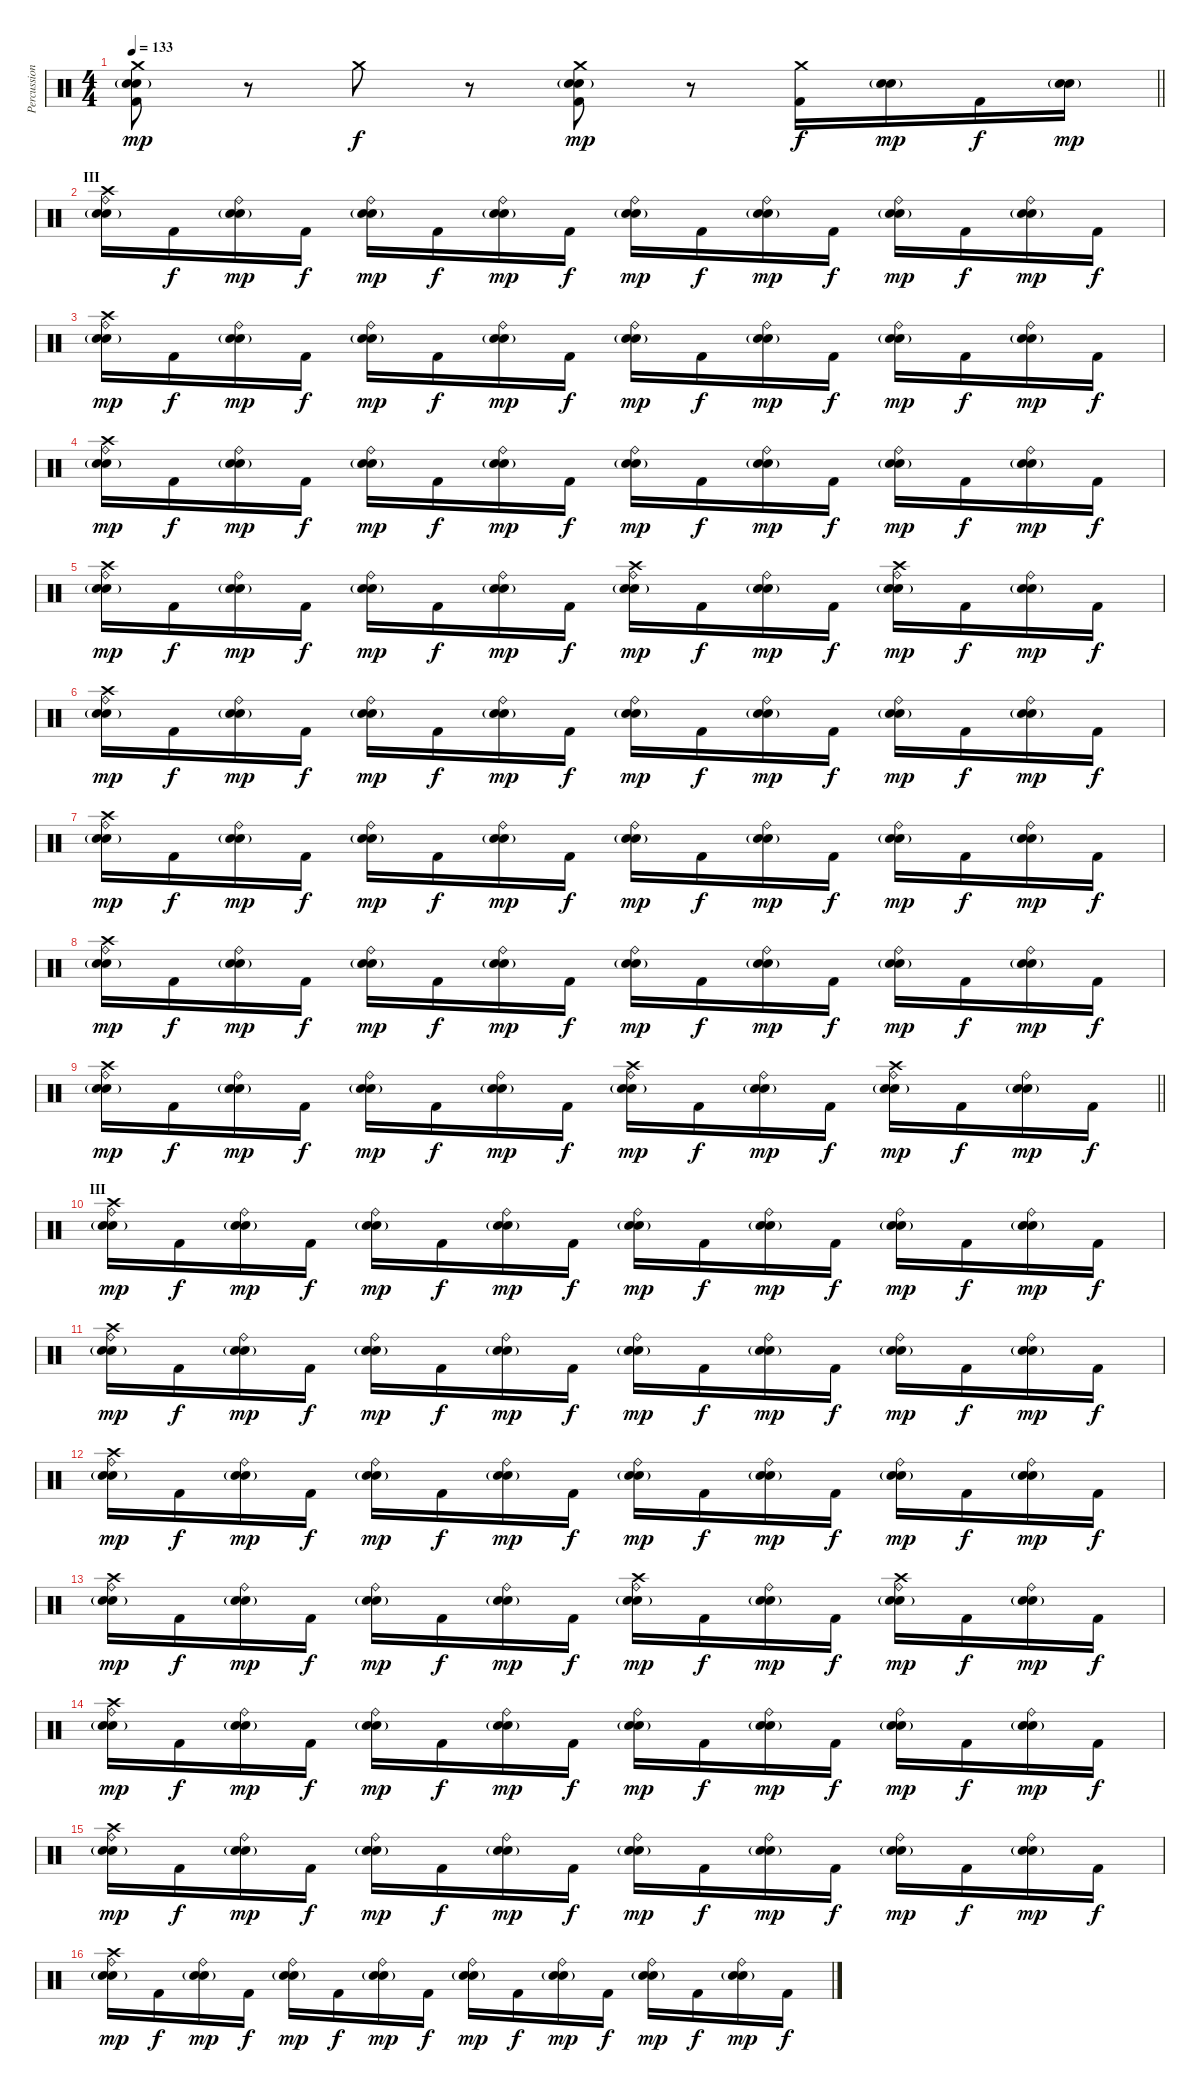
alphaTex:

\track ("Percussion" "Percussion") {instrument percussion}
\staff {score}
\articulation defaults
\ts (4 4)
\tempo 133
\clef neutral
\barLineRight lightlight
\ks c
("Crash medium (hit)" "Electric Snare (hit)" "Snare (hit) 2"{g} "Kick (hit) 2").8{dy mp} r.8 "Crash medium (hit)".8{dy f} r.8 ("Crash medium (hit)" "Electric Snare (hit)" "Snare (hit) 2"{g} "Kick (hit) 2").8{dy mp} r.8 ("Crash medium (hit)" "Kick (hit) 2").16{dy f} ("Electric Snare (hit)" "Snare (hit) 2"{g}).16{dy mp} "Kick (hit) 2".16{dy f} ("Electric Snare (hit)" "Snare (hit) 2"{g}).16{dy mp} |
\section ("" "III")
("Crash high (hit)" "Electric Snare (hit)" "Snare (hit) 2"{g} "Ride (bell)").16 "Kick (hit) 2".16{dy f} ("Electric Snare (hit)" "Snare (hit) 2"{g} "Ride (bell)").16{dy mp} "Kick (hit) 2".16{dy f} ("Electric Snare (hit)" "Snare (hit) 2"{g} "Ride (bell)").16{dy mp} "Kick (hit) 2".16{dy f} ("Electric Snare (hit)" "Snare (hit) 2"{g} "Ride (bell)").16{dy mp} "Kick (hit) 2".16{dy f} ("Electric Snare (hit)" "Snare (hit) 2"{g} "Ride (bell)").16{dy mp} "Kick (hit) 2".16{dy f} ("Electric Snare (hit)" "Snare (hit) 2"{g} "Ride (bell)").16{dy mp} "Kick (hit) 2".16{dy f} ("Electric Snare (hit)" "Snare (hit) 2"{g} "Ride (bell)").16{dy mp} "Kick (hit) 2".16{dy f} ("Electric Snare (hit)" "Snare (hit) 2"{g} "Ride (bell)").16{dy mp} "Kick (hit) 2".16{dy f} |
("Crash high (hit)" "Electric Snare (hit)" "Snare (hit) 2"{g} "Ride (bell)").16{dy mp} "Kick (hit) 2".16{dy f} ("Electric Snare (hit)" "Snare (hit) 2"{g} "Ride (bell)").16{dy mp} "Kick (hit) 2".16{dy f} ("Electric Snare (hit)" "Snare (hit) 2"{g} "Ride (bell)").16{dy mp} "Kick (hit) 2".16{dy f} ("Electric Snare (hit)" "Snare (hit) 2"{g} "Ride (bell)").16{dy mp} "Kick (hit) 2".16{dy f} ("Electric Snare (hit)" "Snare (hit) 2"{g} "Ride (bell)").16{dy mp} "Kick (hit) 2".16{dy f} ("Electric Snare (hit)" "Snare (hit) 2"{g} "Ride (bell)").16{dy mp} "Kick (hit) 2".16{dy f} ("Electric Snare (hit)" "Snare (hit) 2"{g} "Ride (bell)").16{dy mp} "Kick (hit) 2".16{dy f} ("Electric Snare (hit)" "Snare (hit) 2"{g} "Ride (bell)").16{dy mp} "Kick (hit) 2".16{dy f} |
("Crash high (hit)" "Electric Snare (hit)" "Snare (hit) 2"{g} "Ride (bell)").16{dy mp} "Kick (hit) 2".16{dy f} ("Electric Snare (hit)" "Snare (hit) 2"{g} "Ride (bell)").16{dy mp} "Kick (hit) 2".16{dy f} ("Electric Snare (hit)" "Snare (hit) 2"{g} "Ride (bell)").16{dy mp} "Kick (hit) 2".16{dy f} ("Electric Snare (hit)" "Snare (hit) 2"{g} "Ride (bell)").16{dy mp} "Kick (hit) 2".16{dy f} ("Electric Snare (hit)" "Snare (hit) 2"{g} "Ride (bell)").16{dy mp} "Kick (hit) 2".16{dy f} ("Electric Snare (hit)" "Snare (hit) 2"{g} "Ride (bell)").16{dy mp} "Kick (hit) 2".16{dy f} ("Electric Snare (hit)" "Snare (hit) 2"{g} "Ride (bell)").16{dy mp} "Kick (hit) 2".16{dy f} ("Electric Snare (hit)" "Snare (hit) 2"{g} "Ride (bell)").16{dy mp} "Kick (hit) 2".16{dy f} |
("Crash high (hit)" "Electric Snare (hit)" "Snare (hit) 2"{g} "Ride (bell)").16{dy mp} "Kick (hit) 2".16{dy f} ("Electric Snare (hit)" "Snare (hit) 2"{g} "Ride (bell)").16{dy mp} "Kick (hit) 2".16{dy f} ("Electric Snare (hit)" "Snare (hit) 2"{g} "Ride (bell)").16{dy mp} "Kick (hit) 2".16{dy f} ("Electric Snare (hit)" "Snare (hit) 2"{g} "Ride (bell)").16{dy mp} "Kick (hit) 2".16{dy f} ("Crash high (hit)" "Electric Snare (hit)" "Snare (hit) 2"{g} "Ride (bell)").16{dy mp} "Kick (hit) 2".16{dy f} ("Electric Snare (hit)" "Snare (hit) 2"{g} "Ride (bell)").16{dy mp} "Kick (hit) 2".16{dy f} ("Crash high (hit)" "Electric Snare (hit)" "Snare (hit) 2"{g} "Ride (bell)").16{dy mp} "Kick (hit) 2".16{dy f} ("Electric Snare (hit)" "Snare (hit) 2"{g} "Ride (bell)").16{dy mp} "Kick (hit) 2".16{dy f} |
("Crash high (hit)" "Electric Snare (hit)" "Snare (hit) 2"{g} "Ride (bell)").16{dy mp} "Kick (hit) 2".16{dy f} ("Electric Snare (hit)" "Snare (hit) 2"{g} "Ride (bell)").16{dy mp} "Kick (hit) 2".16{dy f} ("Electric Snare (hit)" "Snare (hit) 2"{g} "Ride (bell)").16{dy mp} "Kick (hit) 2".16{dy f} ("Electric Snare (hit)" "Snare (hit) 2"{g} "Ride (bell)").16{dy mp} "Kick (hit) 2".16{dy f} ("Electric Snare (hit)" "Snare (hit) 2"{g} "Ride (bell)").16{dy mp} "Kick (hit) 2".16{dy f} ("Electric Snare (hit)" "Snare (hit) 2"{g} "Ride (bell)").16{dy mp} "Kick (hit) 2".16{dy f} ("Electric Snare (hit)" "Snare (hit) 2"{g} "Ride (bell)").16{dy mp} "Kick (hit) 2".16{dy f} ("Electric Snare (hit)" "Snare (hit) 2"{g} "Ride (bell)").16{dy mp} "Kick (hit) 2".16{dy f} |
("Crash high (hit)" "Electric Snare (hit)" "Snare (hit) 2"{g} "Ride (bell)").16{dy mp} "Kick (hit) 2".16{dy f} ("Electric Snare (hit)" "Snare (hit) 2"{g} "Ride (bell)").16{dy mp} "Kick (hit) 2".16{dy f} ("Electric Snare (hit)" "Snare (hit) 2"{g} "Ride (bell)").16{dy mp} "Kick (hit) 2".16{dy f} ("Electric Snare (hit)" "Snare (hit) 2"{g} "Ride (bell)").16{dy mp} "Kick (hit) 2".16{dy f} ("Electric Snare (hit)" "Snare (hit) 2"{g} "Ride (bell)").16{dy mp} "Kick (hit) 2".16{dy f} ("Electric Snare (hit)" "Snare (hit) 2"{g} "Ride (bell)").16{dy mp} "Kick (hit) 2".16{dy f} ("Electric Snare (hit)" "Snare (hit) 2"{g} "Ride (bell)").16{dy mp} "Kick (hit) 2".16{dy f} ("Electric Snare (hit)" "Snare (hit) 2"{g} "Ride (bell)").16{dy mp} "Kick (hit) 2".16{dy f} |
("Crash high (hit)" "Electric Snare (hit)" "Snare (hit) 2"{g} "Ride (bell)").16{dy mp} "Kick (hit) 2".16{dy f} ("Electric Snare (hit)" "Snare (hit) 2"{g} "Ride (bell)").16{dy mp} "Kick (hit) 2".16{dy f} ("Electric Snare (hit)" "Snare (hit) 2"{g} "Ride (bell)").16{dy mp} "Kick (hit) 2".16{dy f} ("Electric Snare (hit)" "Snare (hit) 2"{g} "Ride (bell)").16{dy mp} "Kick (hit) 2".16{dy f} ("Electric Snare (hit)" "Snare (hit) 2"{g} "Ride (bell)").16{dy mp} "Kick (hit) 2".16{dy f} ("Electric Snare (hit)" "Snare (hit) 2"{g} "Ride (bell)").16{dy mp} "Kick (hit) 2".16{dy f} ("Electric Snare (hit)" "Snare (hit) 2"{g} "Ride (bell)").16{dy mp} "Kick (hit) 2".16{dy f} ("Electric Snare (hit)" "Snare (hit) 2"{g} "Ride (bell)").16{dy mp} "Kick (hit) 2".16{dy f} |
\barLineRight lightlight
("Crash high (hit)" "Electric Snare (hit)" "Snare (hit) 2"{g} "Ride (bell)").16{dy mp} "Kick (hit) 2".16{dy f} ("Electric Snare (hit)" "Snare (hit) 2"{g} "Ride (bell)").16{dy mp} "Kick (hit) 2".16{dy f} ("Electric Snare (hit)" "Snare (hit) 2"{g} "Ride (bell)").16{dy mp} "Kick (hit) 2".16{dy f} ("Electric Snare (hit)" "Snare (hit) 2"{g} "Ride (bell)").16{dy mp} "Kick (hit) 2".16{dy f} ("Crash high (hit)" "Electric Snare (hit)" "Snare (hit) 2"{g} "Ride (bell)").16{dy mp} "Kick (hit) 2".16{dy f} ("Electric Snare (hit)" "Snare (hit) 2"{g} "Ride (bell)").16{dy mp} "Kick (hit) 2".16{dy f} ("Crash high (hit)" "Electric Snare (hit)" "Snare (hit) 2"{g} "Ride (bell)").16{dy mp} "Kick (hit) 2".16{dy f} ("Electric Snare (hit)" "Snare (hit) 2"{g} "Ride (bell)").16{dy mp} "Kick (hit) 2".16{dy f} |
\section ("" "III")
("Crash high (hit)" "Electric Snare (hit)" "Snare (hit) 2"{g} "Ride (bell)").16{dy mp} "Kick (hit) 2".16{dy f} ("Electric Snare (hit)" "Snare (hit) 2"{g} "Ride (bell)").16{dy mp} "Kick (hit) 2".16{dy f} ("Electric Snare (hit)" "Snare (hit) 2"{g} "Ride (bell)").16{dy mp} "Kick (hit) 2".16{dy f} ("Electric Snare (hit)" "Snare (hit) 2"{g} "Ride (bell)").16{dy mp} "Kick (hit) 2".16{dy f} ("Electric Snare (hit)" "Snare (hit) 2"{g} "Ride (bell)").16{dy mp} "Kick (hit) 2".16{dy f} ("Electric Snare (hit)" "Snare (hit) 2"{g} "Ride (bell)").16{dy mp} "Kick (hit) 2".16{dy f} ("Electric Snare (hit)" "Snare (hit) 2"{g} "Ride (bell)").16{dy mp} "Kick (hit) 2".16{dy f} ("Electric Snare (hit)" "Snare (hit) 2"{g} "Ride (bell)").16{dy mp} "Kick (hit) 2".16{dy f} |
("Crash high (hit)" "Electric Snare (hit)" "Snare (hit) 2"{g} "Ride (bell)").16{dy mp} "Kick (hit) 2".16{dy f} ("Electric Snare (hit)" "Snare (hit) 2"{g} "Ride (bell)").16{dy mp} "Kick (hit) 2".16{dy f} ("Electric Snare (hit)" "Snare (hit) 2"{g} "Ride (bell)").16{dy mp} "Kick (hit) 2".16{dy f} ("Electric Snare (hit)" "Snare (hit) 2"{g} "Ride (bell)").16{dy mp} "Kick (hit) 2".16{dy f} ("Electric Snare (hit)" "Snare (hit) 2"{g} "Ride (bell)").16{dy mp} "Kick (hit) 2".16{dy f} ("Electric Snare (hit)" "Snare (hit) 2"{g} "Ride (bell)").16{dy mp} "Kick (hit) 2".16{dy f} ("Electric Snare (hit)" "Snare (hit) 2"{g} "Ride (bell)").16{dy mp} "Kick (hit) 2".16{dy f} ("Electric Snare (hit)" "Snare (hit) 2"{g} "Ride (bell)").16{dy mp} "Kick (hit) 2".16{dy f} |
("Crash high (hit)" "Electric Snare (hit)" "Snare (hit) 2"{g} "Ride (bell)").16{dy mp} "Kick (hit) 2".16{dy f} ("Electric Snare (hit)" "Snare (hit) 2"{g} "Ride (bell)").16{dy mp} "Kick (hit) 2".16{dy f} ("Electric Snare (hit)" "Snare (hit) 2"{g} "Ride (bell)").16{dy mp} "Kick (hit) 2".16{dy f} ("Electric Snare (hit)" "Snare (hit) 2"{g} "Ride (bell)").16{dy mp} "Kick (hit) 2".16{dy f} ("Electric Snare (hit)" "Snare (hit) 2"{g} "Ride (bell)").16{dy mp} "Kick (hit) 2".16{dy f} ("Electric Snare (hit)" "Snare (hit) 2"{g} "Ride (bell)").16{dy mp} "Kick (hit) 2".16{dy f} ("Electric Snare (hit)" "Snare (hit) 2"{g} "Ride (bell)").16{dy mp} "Kick (hit) 2".16{dy f} ("Electric Snare (hit)" "Snare (hit) 2"{g} "Ride (bell)").16{dy mp} "Kick (hit) 2".16{dy f} |
("Crash high (hit)" "Electric Snare (hit)" "Snare (hit) 2"{g} "Ride (bell)").16{dy mp} "Kick (hit) 2".16{dy f} ("Electric Snare (hit)" "Snare (hit) 2"{g} "Ride (bell)").16{dy mp} "Kick (hit) 2".16{dy f} ("Electric Snare (hit)" "Snare (hit) 2"{g} "Ride (bell)").16{dy mp} "Kick (hit) 2".16{dy f} ("Electric Snare (hit)" "Snare (hit) 2"{g} "Ride (bell)").16{dy mp} "Kick (hit) 2".16{dy f} ("Crash high (hit)" "Electric Snare (hit)" "Snare (hit) 2"{g} "Ride (bell)").16{dy mp} "Kick (hit) 2".16{dy f} ("Electric Snare (hit)" "Snare (hit) 2"{g} "Ride (bell)").16{dy mp} "Kick (hit) 2".16{dy f} ("Crash high (hit)" "Electric Snare (hit)" "Snare (hit) 2"{g} "Ride (bell)").16{dy mp} "Kick (hit) 2".16{dy f} ("Electric Snare (hit)" "Snare (hit) 2"{g} "Ride (bell)").16{dy mp} "Kick (hit) 2".16{dy f} |
("Crash high (hit)" "Electric Snare (hit)" "Snare (hit) 2"{g} "Ride (bell)").16{dy mp} "Kick (hit) 2".16{dy f} ("Electric Snare (hit)" "Snare (hit) 2"{g} "Ride (bell)").16{dy mp} "Kick (hit) 2".16{dy f} ("Electric Snare (hit)" "Snare (hit) 2"{g} "Ride (bell)").16{dy mp} "Kick (hit) 2".16{dy f} ("Electric Snare (hit)" "Snare (hit) 2"{g} "Ride (bell)").16{dy mp} "Kick (hit) 2".16{dy f} ("Electric Snare (hit)" "Snare (hit) 2"{g} "Ride (bell)").16{dy mp} "Kick (hit) 2".16{dy f} ("Electric Snare (hit)" "Snare (hit) 2"{g} "Ride (bell)").16{dy mp} "Kick (hit) 2".16{dy f} ("Electric Snare (hit)" "Snare (hit) 2"{g} "Ride (bell)").16{dy mp} "Kick (hit) 2".16{dy f} ("Electric Snare (hit)" "Snare (hit) 2"{g} "Ride (bell)").16{dy mp} "Kick (hit) 2".16{dy f} |
("Crash high (hit)" "Electric Snare (hit)" "Snare (hit) 2"{g} "Ride (bell)").16{dy mp} "Kick (hit) 2".16{dy f} ("Electric Snare (hit)" "Snare (hit) 2"{g} "Ride (bell)").16{dy mp} "Kick (hit) 2".16{dy f} ("Electric Snare (hit)" "Snare (hit) 2"{g} "Ride (bell)").16{dy mp} "Kick (hit) 2".16{dy f} ("Electric Snare (hit)" "Snare (hit) 2"{g} "Ride (bell)").16{dy mp} "Kick (hit) 2".16{dy f} ("Electric Snare (hit)" "Snare (hit) 2"{g} "Ride (bell)").16{dy mp} "Kick (hit) 2".16{dy f} ("Electric Snare (hit)" "Snare (hit) 2"{g} "Ride (bell)").16{dy mp} "Kick (hit) 2".16{dy f} ("Electric Snare (hit)" "Snare (hit) 2"{g} "Ride (bell)").16{dy mp} "Kick (hit) 2".16{dy f} ("Electric Snare (hit)" "Snare (hit) 2"{g} "Ride (bell)").16{dy mp} "Kick (hit) 2".16{dy f} |
("Crash high (hit)" "Electric Snare (hit)" "Snare (hit) 2"{g} "Ride (bell)").16{dy mp} "Kick (hit) 2".16{dy f} ("Electric Snare (hit)" "Snare (hit) 2"{g} "Ride (bell)").16{dy mp} "Kick (hit) 2".16{dy f} ("Electric Snare (hit)" "Snare (hit) 2"{g} "Ride (bell)").16{dy mp} "Kick (hit) 2".16{dy f} ("Electric Snare (hit)" "Snare (hit) 2"{g} "Ride (bell)").16{dy mp} "Kick (hit) 2".16{dy f} ("Electric Snare (hit)" "Snare (hit) 2"{g} "Ride (bell)").16{dy mp} "Kick (hit) 2".16{dy f} ("Electric Snare (hit)" "Snare (hit) 2"{g} "Ride (bell)").16{dy mp} "Kick (hit) 2".16{dy f} ("Electric Snare (hit)" "Snare (hit) 2"{g} "Ride (bell)").16{dy mp} "Kick (hit) 2".16{dy f} ("Electric Snare (hit)" "Snare (hit) 2"{g} "Ride (bell)").16{dy mp} "Kick (hit) 2".16{dy f}
